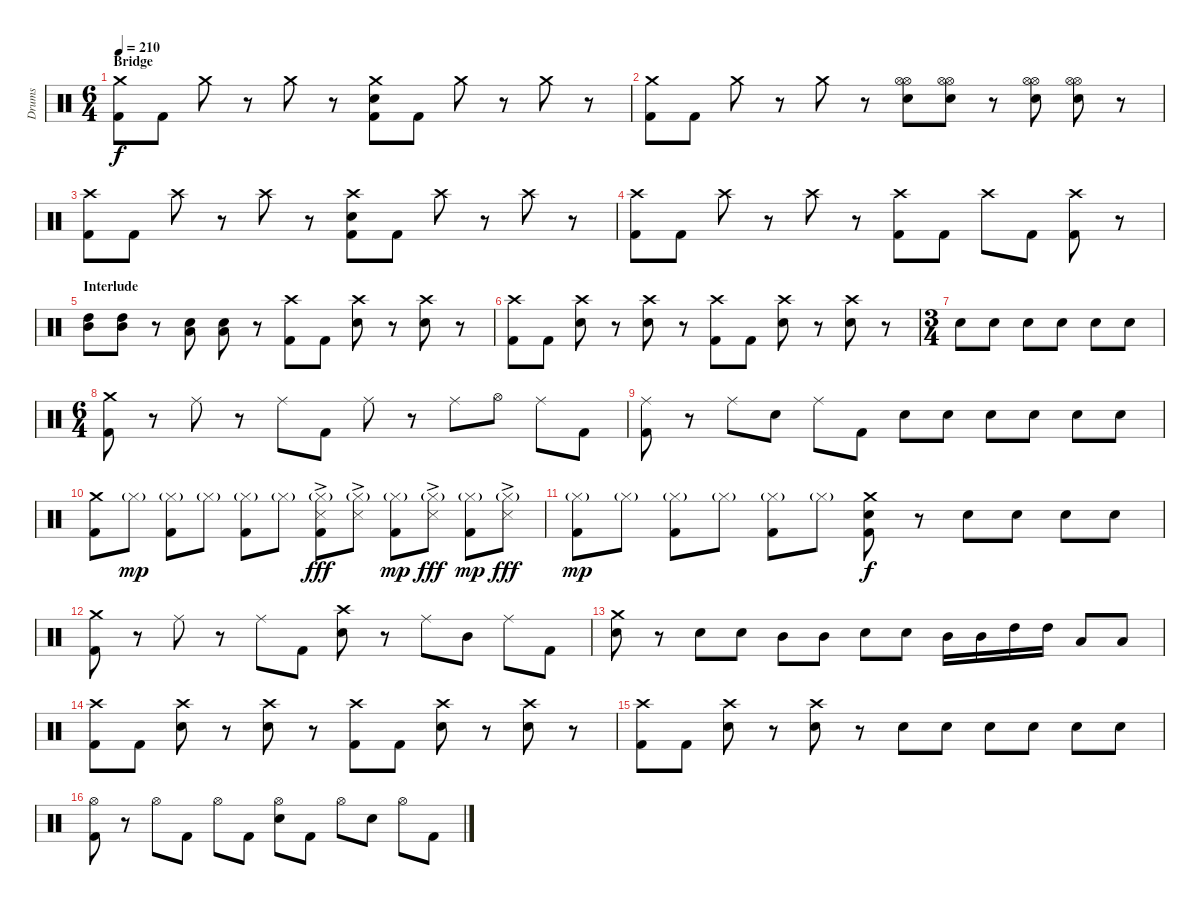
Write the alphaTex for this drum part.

\track ("Drums" "Drums") {instrument percussion}
\staff {score}
\articulation defaults
\ts (6 4)
\section ("" "Bridge")
\tempo 210
\clef neutral
\ks c
("Crash medium (hit)" "Kick (hit) 2").8{dy f} "Kick (hit) 2".8 "Crash medium (hit)".8 r.8 "Crash medium (hit)".8 r.8 ("Crash medium (hit)" "Electric Snare (hit)" "Kick (hit) 2").8 "Kick (hit) 2".8 "Crash medium (hit)".8 r.8 "Crash medium (hit)".8 r.8 |
("Crash medium (hit)" "Kick (hit) 2").8 "Kick (hit) 2".8 "Crash medium (hit)".8 r.8 "Crash medium (hit)".8 r.8 ("Hi-Hat (open)" "Hi-Hat (open)" "Electric Snare (hit)").8 ("Hi-Hat (open)" "Hi-Hat (open)" "Electric Snare (hit)").8 r.8 ("Hi-Hat (open)" "Hi-Hat (open)" "Electric Snare (hit)").8 ("Hi-Hat (open)" "Hi-Hat (open)" "Electric Snare (hit)").8 r.8 |
("Crash high (hit)" "Kick (hit) 2").8 "Kick (hit) 2".8 "Crash high (hit)".8 r.8 "Crash high (hit)".8 r.8 ("Crash high (hit)" "Electric Snare (hit)" "Kick (hit) 2").8 "Kick (hit) 2".8 "Crash high (hit)".8 r.8 "Crash high (hit)".8 r.8 |
("Crash high (hit)" "Kick (hit) 2").8 "Kick (hit) 2".8 "Crash high (hit)".8 r.8 "Crash high (hit)".8 r.8 ("Crash high (hit)" "Kick (hit) 2").8 "Kick (hit) 2".8 "Crash high (hit)".8 "Kick (hit) 2".8 ("Crash high (hit)" "Kick (hit) 2").8 r.8 |
\section ("" "Interlude")
("Mid Tom (hit)" "High Tom (hit)").8 ("Mid Tom (hit)" "High Tom (hit)").8 r.8 ("Electric Snare (hit)" "Low Floor Tom (hit)").8 ("Electric Snare (hit)" "Low Floor Tom (hit)").8 r.8 ("Crash high (hit)" "Kick (hit) 2").8 "Kick (hit) 2".8 ("Crash high (hit)" "Electric Snare (hit)").8 r.8 ("Crash high (hit)" "Electric Snare (hit)").8 r.8 |
("Crash high (hit)" "Kick (hit) 2").8 "Kick (hit) 2".8 ("Crash high (hit)" "Electric Snare (hit)").8 r.8 ("Crash high (hit)" "Electric Snare (hit)").8 r.8 ("Crash high (hit)" "Kick (hit) 2").8 "Kick (hit) 2".8 ("Crash high (hit)" "Electric Snare (hit)").8 r.8 ("Crash high (hit)" "Electric Snare (hit)").8 r.8 |
\ts (3 4)
"Electric Snare (hit)".8 "Electric Snare (hit)".8 "Electric Snare (hit)".8 "Electric Snare (hit)".8 "Electric Snare (hit)".8 "Electric Snare (hit)".8 |
\ts (6 4)
("Crash medium (hit)" "Kick (hit) 2").8 r.8 "Ride (middle)".8 r.8 "Ride (middle)".8 "Kick (hit) 2".8 "Ride (middle)".8 r.8 "Ride (middle)".8 "Hi-Hat (open)".8 "Ride (middle)".8 "Kick (hit) 2".8 |
("Ride (middle)" "Kick (hit) 2").8 r.8 "Ride (middle)".8 "Electric Snare (hit)".8 "Ride (middle)".8 "Kick (hit) 2".8 "Electric Snare (hit)".8 "Electric Snare (hit)".8 "Electric Snare (hit)".8 "Electric Snare (hit)".8 "Electric Snare (hit)".8 "Electric Snare (hit)".8 |
("Crash medium (hit)" "Kick (hit) 2").8 "Hi-Hat (closed)"{g}.8{dy mp} ("Hi-Hat (closed)"{g} "Kick (hit) 2").8 "Hi-Hat (closed)"{g}.8 ("Hi-Hat (closed)"{g} "Kick (hit) 2").8 "Hi-Hat (closed)"{g}.8 ("Hi-Hat (closed)"{g} "Snare (side stick) 3"{ac} "Kick (hit) 2").8{dy fff} ("Hi-Hat (closed)"{g} "Snare (side stick) 3"{ac}).8 ("Hi-Hat (closed)"{g} "Kick (hit) 2").8{dy mp} ("Hi-Hat (closed)"{g} "Snare (side stick) 3"{ac}).8{dy fff} ("Hi-Hat (closed)"{g} "Kick (hit) 2").8{dy mp} ("Hi-Hat (closed)"{g} "Snare (side stick) 3"{ac}).8{dy fff} |
("Hi-Hat (closed)"{g} "Kick (hit) 2").8{dy mp} "Hi-Hat (closed)"{g}.8 ("Hi-Hat (closed)"{g} "Kick (hit) 2").8 "Hi-Hat (closed)"{g}.8 ("Hi-Hat (closed)"{g} "Kick (hit) 2").8 "Hi-Hat (closed)"{g}.8 ("Crash medium (hit)" "Electric Snare (hit)" "Kick (hit) 2").8{dy f} r.8 "Electric Snare (hit)".8 "Electric Snare (hit)".8 "Electric Snare (hit)".8 "Electric Snare (hit)".8 |
("Crash medium (hit)" "Kick (hit) 2").8 r.8 "Ride (middle)".8 r.8 "Ride (middle)".8 "Kick (hit) 2".8 ("Crash high (hit)" "Electric Snare (hit)").8 r.8 "Ride (middle)".8 "Mid Tom (hit)".8 "Ride (middle)".8 "Kick (hit) 2".8 |
("Crash medium (hit)" "Electric Snare (hit)").8 r.8 "Electric Snare (hit)".8 "Electric Snare (hit)".8 "Mid Tom (hit)".8 "Mid Tom (hit)".8 "Electric Snare (hit)".8 "Electric Snare (hit)".8 "Mid Tom (hit)".16 "Mid Tom (hit)".16 "High Tom (hit)".16 "High Tom (hit)".16 "Low Floor Tom (hit)".8 "Low Floor Tom (hit)".8 |
("Crash high (hit)" "Kick (hit) 2").8 "Kick (hit) 2".8 ("Crash high (hit)" "Electric Snare (hit)").8 r.8 ("Crash high (hit)" "Electric Snare (hit)").8 r.8 ("Crash high (hit)" "Kick (hit) 2").8 "Kick (hit) 2".8 ("Crash high (hit)" "Electric Snare (hit)").8 r.8 ("Crash high (hit)" "Electric Snare (hit)").8 r.8 |
("Crash high (hit)" "Kick (hit) 2").8 "Kick (hit) 2".8 ("Crash high (hit)" "Electric Snare (hit)").8 r.8 ("Crash high (hit)" "Electric Snare (hit)").8 r.8 "Electric Snare (hit)".8 "Electric Snare (hit)".8 "Electric Snare (hit)".8 "Electric Snare (hit)".8 "Electric Snare (hit)".8 "Electric Snare (hit)".8 |
("Hi-Hat (open)" "Kick (hit) 2").8 r.8 "Hi-Hat (open)".8 "Kick (hit) 2".8 "Hi-Hat (open)".8 "Kick (hit) 2".8 ("Hi-Hat (open)" "Electric Snare (hit)").8 "Kick (hit) 2".8 "Hi-Hat (open)".8 "Electric Snare (hit)".8 "Hi-Hat (open)".8 "Kick (hit) 2".8
